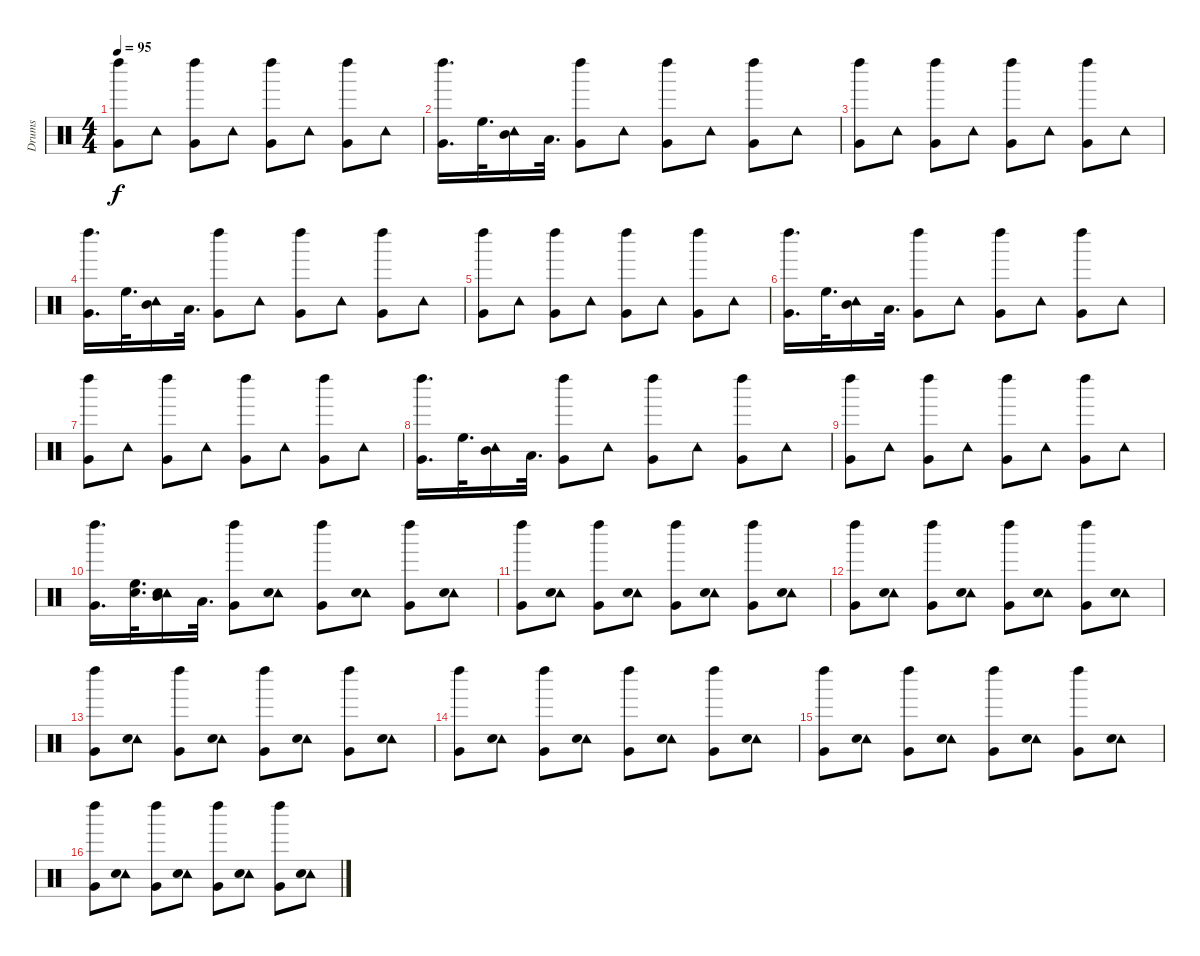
\track ("Drums" "Drums") {instrument percussion}
\staff {score}
\articulation defaults
\ts (4 4)
\tempo 95
\clef neutral
\ks c
("Very Low Tom (hit)" "Left Maraca (hit)").8{dy f} "Tambourine (hit)".8 ("Very Low Tom (hit)" "Left Maraca (hit)").8 "Tambourine (hit)".8 ("Very Low Tom (hit)" "Left Maraca (hit)").8 "Tambourine (hit)".8 ("Very Low Tom (hit)" "Left Maraca (hit)").8 "Tambourine (hit)".8 |
("Very Low Tom (hit)" "Left Maraca (hit)").16{d} "High Floor Tom (hit)".32{d} ("Mid Tom (hit)" "Tambourine (hit)").16 "Low Tom (hit)".32{d} ("Very Low Tom (hit)" "Left Maraca (hit)").8 "Tambourine (hit)".8 ("Very Low Tom (hit)" "Left Maraca (hit)").8 "Tambourine (hit)".8 ("Very Low Tom (hit)" "Left Maraca (hit)").8 "Tambourine (hit)".8 |
("Very Low Tom (hit)" "Left Maraca (hit)").8 "Tambourine (hit)".8 ("Very Low Tom (hit)" "Left Maraca (hit)").8 "Tambourine (hit)".8 ("Very Low Tom (hit)" "Left Maraca (hit)").8 "Tambourine (hit)".8 ("Very Low Tom (hit)" "Left Maraca (hit)").8 "Tambourine (hit)".8 |
("Very Low Tom (hit)" "Left Maraca (hit)").16{d} "High Floor Tom (hit)".32{d} ("Mid Tom (hit)" "Tambourine (hit)").16 "Low Tom (hit)".32{d} ("Very Low Tom (hit)" "Left Maraca (hit)").8 "Tambourine (hit)".8 ("Very Low Tom (hit)" "Left Maraca (hit)").8 "Tambourine (hit)".8 ("Very Low Tom (hit)" "Left Maraca (hit)").8 "Tambourine (hit)".8 |
("Very Low Tom (hit)" "Left Maraca (hit)").8 "Tambourine (hit)".8 ("Very Low Tom (hit)" "Left Maraca (hit)").8 "Tambourine (hit)".8 ("Very Low Tom (hit)" "Left Maraca (hit)").8 "Tambourine (hit)".8 ("Very Low Tom (hit)" "Left Maraca (hit)").8 "Tambourine (hit)".8 |
("Very Low Tom (hit)" "Left Maraca (hit)").16{d} "High Floor Tom (hit)".32{d} ("Mid Tom (hit)" "Tambourine (hit)").16 "Low Tom (hit)".32{d} ("Very Low Tom (hit)" "Left Maraca (hit)").8 "Tambourine (hit)".8 ("Very Low Tom (hit)" "Left Maraca (hit)").8 "Tambourine (hit)".8 ("Very Low Tom (hit)" "Left Maraca (hit)").8 "Tambourine (hit)".8 |
("Very Low Tom (hit)" "Left Maraca (hit)").8 "Tambourine (hit)".8 ("Very Low Tom (hit)" "Left Maraca (hit)").8 "Tambourine (hit)".8 ("Very Low Tom (hit)" "Left Maraca (hit)").8 "Tambourine (hit)".8 ("Very Low Tom (hit)" "Left Maraca (hit)").8 "Tambourine (hit)".8 |
("Very Low Tom (hit)" "Left Maraca (hit)").16{d} "High Floor Tom (hit)".32{d} ("Mid Tom (hit)" "Tambourine (hit)").16 "Low Tom (hit)".32{d} ("Very Low Tom (hit)" "Left Maraca (hit)").8 "Tambourine (hit)".8 ("Very Low Tom (hit)" "Left Maraca (hit)").8 "Tambourine (hit)".8 ("Very Low Tom (hit)" "Left Maraca (hit)").8 "Tambourine (hit)".8 |
("Very Low Tom (hit)" "Left Maraca (hit)").8 "Tambourine (hit)".8 ("Very Low Tom (hit)" "Left Maraca (hit)").8 "Tambourine (hit)".8 ("Very Low Tom (hit)" "Left Maraca (hit)").8 "Tambourine (hit)".8 ("Very Low Tom (hit)" "Left Maraca (hit)").8 "Tambourine (hit)".8 |
("Very Low Tom (hit)" "Left Maraca (hit)").16{d} ("High Floor Tom (hit)" "Snare (hit) 2").32{d} ("Mid Tom (hit)" "Tambourine (hit)" "Snare (hit) 2").16 "Low Tom (hit)".32{d} ("Very Low Tom (hit)" "Left Maraca (hit)").8 ("Tambourine (hit)" "Snare (hit) 2").8 ("Very Low Tom (hit)" "Left Maraca (hit)").8 ("Tambourine (hit)" "Snare (hit) 2").8 ("Very Low Tom (hit)" "Left Maraca (hit)").8 ("Tambourine (hit)" "Snare (hit) 2").8 |
("Very Low Tom (hit)" "Left Maraca (hit)").8 ("Tambourine (hit)" "Snare (hit) 2").8 ("Very Low Tom (hit)" "Left Maraca (hit)").8 ("Tambourine (hit)" "Snare (hit) 2").8 ("Very Low Tom (hit)" "Left Maraca (hit)").8 ("Tambourine (hit)" "Snare (hit) 2").8 ("Very Low Tom (hit)" "Left Maraca (hit)").8 ("Tambourine (hit)" "Snare (hit) 2").8 |
("Very Low Tom (hit)" "Left Maraca (hit)").8 ("Tambourine (hit)" "Snare (hit) 2").8 ("Very Low Tom (hit)" "Left Maraca (hit)").8 ("Tambourine (hit)" "Snare (hit) 2").8 ("Very Low Tom (hit)" "Left Maraca (hit)").8 ("Tambourine (hit)" "Snare (hit) 2").8 ("Very Low Tom (hit)" "Left Maraca (hit)").8 ("Tambourine (hit)" "Snare (hit) 2").8 |
("Very Low Tom (hit)" "Left Maraca (hit)").8 ("Tambourine (hit)" "Snare (hit) 2").8 ("Very Low Tom (hit)" "Left Maraca (hit)").8 ("Tambourine (hit)" "Snare (hit) 2").8 ("Very Low Tom (hit)" "Left Maraca (hit)").8 ("Tambourine (hit)" "Snare (hit) 2").8 ("Very Low Tom (hit)" "Left Maraca (hit)").8 ("Tambourine (hit)" "Snare (hit) 2").8 |
("Very Low Tom (hit)" "Left Maraca (hit)").8 ("Tambourine (hit)" "Snare (hit) 2").8 ("Very Low Tom (hit)" "Left Maraca (hit)").8 ("Tambourine (hit)" "Snare (hit) 2").8 ("Very Low Tom (hit)" "Left Maraca (hit)").8 ("Tambourine (hit)" "Snare (hit) 2").8 ("Very Low Tom (hit)" "Left Maraca (hit)").8 ("Tambourine (hit)" "Snare (hit) 2").8 |
("Very Low Tom (hit)" "Left Maraca (hit)").8 ("Tambourine (hit)" "Snare (hit) 2").8 ("Very Low Tom (hit)" "Left Maraca (hit)").8 ("Tambourine (hit)" "Snare (hit) 2").8 ("Very Low Tom (hit)" "Left Maraca (hit)").8 ("Tambourine (hit)" "Snare (hit) 2").8 ("Very Low Tom (hit)" "Left Maraca (hit)").8 ("Tambourine (hit)" "Snare (hit) 2").8 |
("Very Low Tom (hit)" "Left Maraca (hit)").8 ("Tambourine (hit)" "Snare (hit) 2").8 ("Very Low Tom (hit)" "Left Maraca (hit)").8 ("Tambourine (hit)" "Snare (hit) 2").8 ("Very Low Tom (hit)" "Left Maraca (hit)").8 ("Tambourine (hit)" "Snare (hit) 2").8 ("Very Low Tom (hit)" "Left Maraca (hit)").8 ("Tambourine (hit)" "Snare (hit) 2").8
